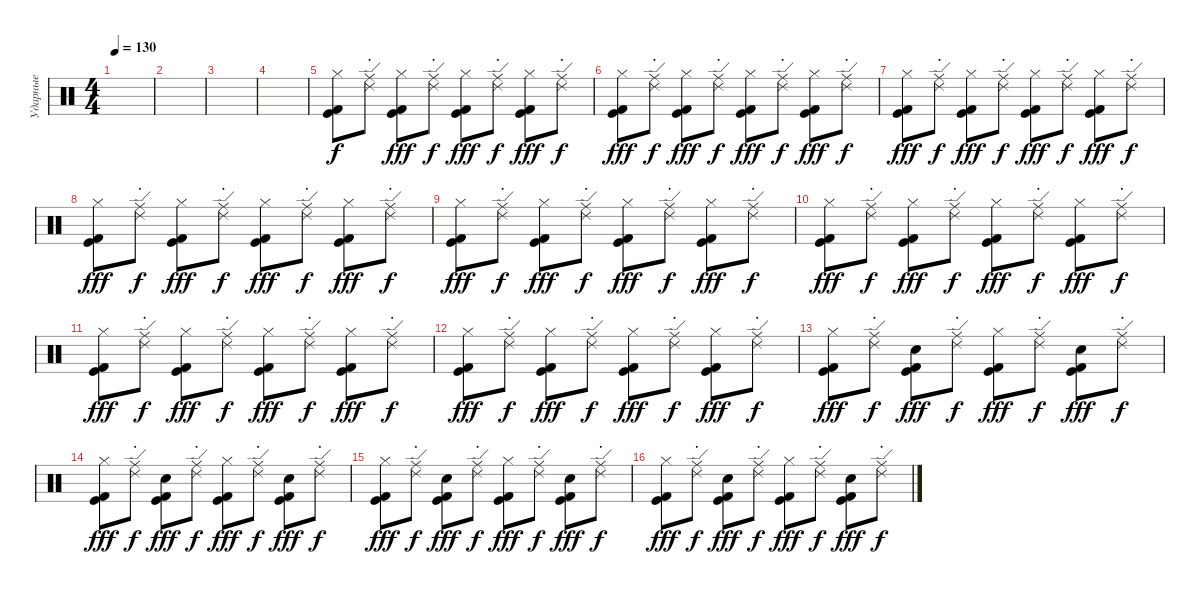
\track ("Ударные" "Ударные") {instrument percussion}
\staff {score}
\articulation defaults
\ts (4 4)
\tempo 130
\clef neutral
\ks c
|
|
|
|
("Hi-Hat (closed)" "Kick (hit) 2" "Kick (hit)").8 ("Ride (edge) 2" "Ride (middle)"{st}).8{dy f} ("Hi-Hat (closed)" "Kick (hit) 2" "Kick (hit)").8{dy fff} ("Ride (edge) 2" "Ride (middle)"{st}).8{dy f} ("Hi-Hat (closed)" "Kick (hit) 2" "Kick (hit)").8{dy fff} ("Ride (edge) 2" "Ride (middle)"{st}).8{dy f} ("Hi-Hat (closed)" "Kick (hit) 2" "Kick (hit)").8{dy fff} ("Ride (edge) 2" "Ride (middle)"{st}).8{dy f} |
("Hi-Hat (closed)" "Kick (hit) 2" "Kick (hit)").8{dy fff} ("Ride (edge) 2" "Ride (middle)"{st}).8{dy f} ("Hi-Hat (closed)" "Kick (hit) 2" "Kick (hit)").8{dy fff} ("Ride (edge) 2" "Ride (middle)"{st}).8{dy f} ("Hi-Hat (closed)" "Kick (hit) 2" "Kick (hit)").8{dy fff} ("Ride (edge) 2" "Ride (middle)"{st}).8{dy f} ("Hi-Hat (closed)" "Kick (hit) 2" "Kick (hit)").8{dy fff} ("Ride (edge) 2" "Ride (middle)"{st}).8{dy f} |
("Hi-Hat (closed)" "Kick (hit) 2" "Kick (hit)").8{dy fff} ("Ride (edge) 2" "Ride (middle)"{st}).8{dy f} ("Hi-Hat (closed)" "Kick (hit) 2" "Kick (hit)").8{dy fff} ("Ride (edge) 2" "Ride (middle)"{st}).8{dy f} ("Hi-Hat (closed)" "Kick (hit) 2" "Kick (hit)").8{dy fff} ("Ride (edge) 2" "Ride (middle)"{st}).8{dy f} ("Hi-Hat (closed)" "Kick (hit) 2" "Kick (hit)").8{dy fff} ("Ride (edge) 2" "Ride (middle)"{st}).8{dy f} |
("Hi-Hat (closed)" "Kick (hit) 2" "Kick (hit)").8{dy fff} ("Ride (edge) 2" "Ride (middle)"{st}).8{dy f} ("Hi-Hat (closed)" "Kick (hit) 2" "Kick (hit)").8{dy fff} ("Ride (edge) 2" "Ride (middle)"{st}).8{dy f} ("Hi-Hat (closed)" "Kick (hit) 2" "Kick (hit)").8{dy fff} ("Ride (edge) 2" "Ride (middle)"{st}).8{dy f} ("Hi-Hat (closed)" "Kick (hit) 2" "Kick (hit)").8{dy fff} ("Ride (edge) 2" "Ride (middle)"{st}).8{dy f} |
("Hi-Hat (closed)" "Kick (hit) 2" "Kick (hit)").8{dy fff} ("Ride (edge) 2" "Ride (middle)"{st}).8{dy f} ("Hi-Hat (closed)" "Kick (hit) 2" "Kick (hit)").8{dy fff} ("Ride (edge) 2" "Ride (middle)"{st}).8{dy f} ("Hi-Hat (closed)" "Kick (hit) 2" "Kick (hit)").8{dy fff} ("Ride (edge) 2" "Ride (middle)"{st}).8{dy f} ("Hi-Hat (closed)" "Kick (hit) 2" "Kick (hit)").8{dy fff} ("Ride (edge) 2" "Ride (middle)"{st}).8{dy f} |
("Hi-Hat (closed)" "Kick (hit) 2" "Kick (hit)").8{dy fff} ("Ride (edge) 2" "Ride (middle)"{st}).8{dy f} ("Hi-Hat (closed)" "Kick (hit) 2" "Kick (hit)").8{dy fff} ("Ride (edge) 2" "Ride (middle)"{st}).8{dy f} ("Hi-Hat (closed)" "Kick (hit) 2" "Kick (hit)").8{dy fff} ("Ride (edge) 2" "Ride (middle)"{st}).8{dy f} ("Hi-Hat (closed)" "Kick (hit) 2" "Kick (hit)").8{dy fff} ("Ride (edge) 2" "Ride (middle)"{st}).8{dy f} |
("Hi-Hat (closed)" "Kick (hit) 2" "Kick (hit)").8{dy fff} ("Ride (edge) 2" "Ride (middle)"{st}).8{dy f} ("Hi-Hat (closed)" "Kick (hit) 2" "Kick (hit)").8{dy fff} ("Ride (edge) 2" "Ride (middle)"{st}).8{dy f} ("Hi-Hat (closed)" "Kick (hit) 2" "Kick (hit)").8{dy fff} ("Ride (edge) 2" "Ride (middle)"{st}).8{dy f} ("Hi-Hat (closed)" "Kick (hit) 2" "Kick (hit)").8{dy fff} ("Ride (edge) 2" "Ride (middle)"{st}).8{dy f} |
("Hi-Hat (closed)" "Kick (hit) 2" "Kick (hit)").8{dy fff} ("Ride (edge) 2" "Ride (middle)"{st}).8{dy f} ("Hi-Hat (closed)" "Kick (hit) 2" "Kick (hit)").8{dy fff} ("Ride (edge) 2" "Ride (middle)"{st}).8{dy f} ("Hi-Hat (closed)" "Kick (hit) 2" "Kick (hit)").8{dy fff} ("Ride (edge) 2" "Ride (middle)"{st}).8{dy f} ("Hi-Hat (closed)" "Kick (hit) 2" "Kick (hit)").8{dy fff} ("Ride (edge) 2" "Ride (middle)"{st}).8{dy f} |
("Hi-Hat (closed)" "Kick (hit) 2" "Kick (hit)").8{dy fff} ("Ride (edge) 2" "Ride (middle)"{st}).8{dy f} ("Hand Clap (hit)" "Kick (hit) 2" "Kick (hit)").8{dy fff} ("Ride (edge) 2" "Ride (middle)"{st}).8{dy f} ("Hi-Hat (closed)" "Kick (hit) 2" "Kick (hit)").8{dy fff} ("Ride (edge) 2" "Ride (middle)"{st}).8{dy f} ("Hand Clap (hit)" "Kick (hit) 2" "Kick (hit)").8{dy fff} ("Ride (edge) 2" "Ride (middle)"{st}).8{dy f} |
("Hi-Hat (closed)" "Kick (hit) 2" "Kick (hit)").8{dy fff} ("Ride (edge) 2" "Ride (middle)"{st}).8{dy f} ("Hand Clap (hit)" "Kick (hit) 2" "Kick (hit)").8{dy fff} ("Ride (edge) 2" "Ride (middle)"{st}).8{dy f} ("Hi-Hat (closed)" "Kick (hit) 2" "Kick (hit)").8{dy fff} ("Ride (edge) 2" "Ride (middle)"{st}).8{dy f} ("Hand Clap (hit)" "Kick (hit) 2" "Kick (hit)").8{dy fff} ("Ride (edge) 2" "Ride (middle)"{st}).8{dy f} |
("Hi-Hat (closed)" "Kick (hit) 2" "Kick (hit)").8{dy fff} ("Ride (edge) 2" "Ride (middle)"{st}).8{dy f} ("Hand Clap (hit)" "Kick (hit) 2" "Kick (hit)").8{dy fff} ("Ride (edge) 2" "Ride (middle)"{st}).8{dy f} ("Hi-Hat (closed)" "Kick (hit) 2" "Kick (hit)").8{dy fff} ("Ride (edge) 2" "Ride (middle)"{st}).8{dy f} ("Hand Clap (hit)" "Kick (hit) 2" "Kick (hit)").8{dy fff} ("Ride (edge) 2" "Ride (middle)"{st}).8{dy f} |
("Hi-Hat (closed)" "Kick (hit) 2" "Kick (hit)").8{dy fff} ("Ride (edge) 2" "Ride (middle)"{st}).8{dy f} ("Hand Clap (hit)" "Kick (hit) 2" "Kick (hit)").8{dy fff} ("Ride (edge) 2" "Ride (middle)"{st}).8{dy f} ("Hi-Hat (closed)" "Kick (hit) 2" "Kick (hit)").8{dy fff} ("Ride (edge) 2" "Ride (middle)"{st}).8{dy f} ("Hand Clap (hit)" "Kick (hit) 2" "Kick (hit)").8{dy fff} ("Ride (edge) 2" "Ride (middle)"{st}).8{dy f}
